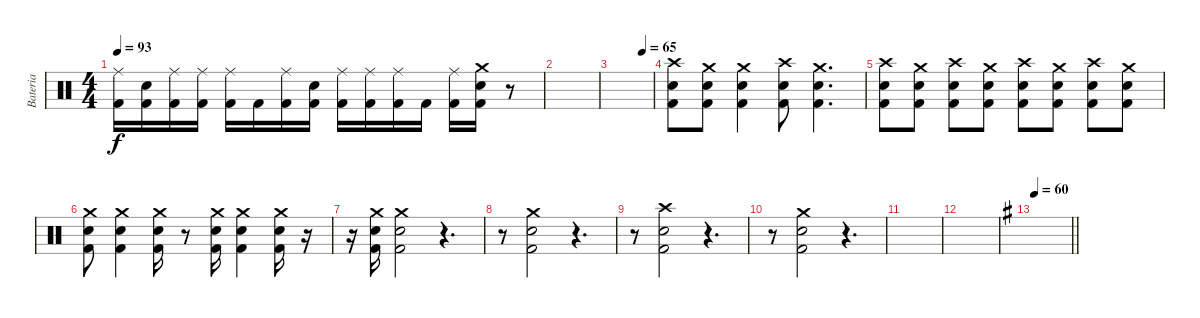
\track ("Bateria" "Bateria") {instrument percussion}
\staff {score}
\articulation defaults
\ts (4 4)
\tempo 93
\clef neutral
\ks c
("Ride (middle)" "Kick (hit) 2").16{dy f} ("Snare (hit) 2" "Kick (hit) 2").16 ("Ride (middle)" "Kick (hit) 2").16 ("Ride (middle)" "Kick (hit) 2").16 ("Ride (middle)" "Kick (hit) 2").16 "Kick (hit) 2".16 ("Ride (middle)" "Kick (hit) 2").16 ("Snare (hit) 2" "Kick (hit) 2").16 ("Ride (middle)" "Kick (hit) 2").16 ("Ride (middle)" "Kick (hit) 2").16 ("Ride (middle)" "Kick (hit) 2").16 "Kick (hit) 2".16 ("Ride (middle)" "Kick (hit) 2").16 ("Crash medium (hit)" "Snare (hit) 2" "Kick (hit) 2").16 r.8 |
|
\tempo (65 0.75)
|
("Crash high (hit)" "Snare (hit) 2" "Kick (hit) 2").8{volume 12 balance 5} ("Crash medium (hit)" "Snare (hit) 2" "Kick (hit) 2").8 ("Crash medium (hit)" "Snare (hit) 2" "Kick (hit) 2").4 ("Crash high (hit)" "Snare (hit) 2" "Kick (hit) 2").8 ("Crash medium (hit)" "Snare (hit) 2" "Kick (hit) 2").4{d} |
("Crash high (hit)" "Snare (hit) 2" "Kick (hit) 2").8 ("Crash medium (hit)" "Snare (hit) 2" "Kick (hit) 2").8 ("Crash high (hit)" "Snare (hit) 2" "Kick (hit) 2").8 ("Crash medium (hit)" "Snare (hit) 2" "Kick (hit) 2").8 ("Crash high (hit)" "Snare (hit) 2" "Kick (hit) 2").8 ("Crash medium (hit)" "Snare (hit) 2" "Kick (hit) 2").8 ("Crash high (hit)" "Snare (hit) 2" "Kick (hit) 2").8 ("Crash medium (hit)" "Snare (hit) 2" "Kick (hit) 2").8 |
("Crash medium (hit)" "Snare (hit) 2" "Kick (hit) 2").8 ("Crash medium (hit)" "Snare (hit) 2" "Kick (hit) 2").4 ("Crash medium (hit)" "Snare (hit) 2" "Kick (hit) 2").16 r.8 ("Crash medium (hit)" "Snare (hit) 2" "Kick (hit) 2").16 ("Crash medium (hit)" "Snare (hit) 2" "Kick (hit) 2").4 ("Crash medium (hit)" "Snare (hit) 2" "Kick (hit) 2").16 r.16 |
r.16 ("Crash medium (hit)" "Snare (hit) 2" "Kick (hit) 2").16 ("Crash medium (hit)" "Snare (hit) 2" "Kick (hit) 2").2 r.4{d} |
r.8 ("Crash medium (hit)" "Snare (hit) 2" "Kick (hit) 2").2 r.4{d} |
r.8 ("Crash high (hit)" "Snare (hit) 2" "Kick (hit) 2").2 r.4{d} |
r.8 ("Crash medium (hit)" "Snare (hit) 2" "Kick (hit) 2").2 r.4{d} |
|
|
\tempo 60
\barLineRight lightlight
\ks g
